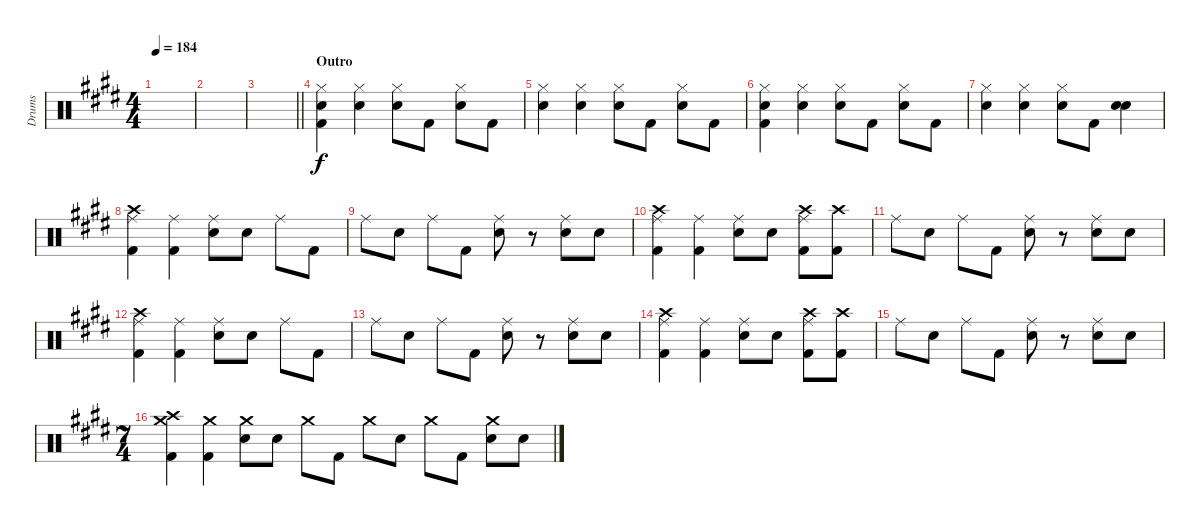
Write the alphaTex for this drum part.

\track ("Drums" "Drums") {instrument percussion}
\staff {score}
\articulation defaults
\ts (4 4)
\tempo 184
\clef neutral
\ks c#minor
|
|
\barLineRight lightlight
|
\section ("" "Outro")
("Hi-Hat (closed)" "Snare (hit) 2" "Kick (hit) 2").4 ("Hi-Hat (closed)" "Snare (hit) 2").4 ("Hi-Hat (closed)" "Snare (hit) 2").8 "Kick (hit) 2".8 ("Hi-Hat (closed)" "Snare (hit) 2").8 "Kick (hit) 2".8 |
("Hi-Hat (closed)" "Snare (hit) 2").4 ("Hi-Hat (closed)" "Snare (hit) 2").4 ("Hi-Hat (closed)" "Snare (hit) 2").8 "Kick (hit) 2".8 ("Hi-Hat (closed)" "Snare (hit) 2").8 "Kick (hit) 2".8 |
("Hi-Hat (closed)" "Snare (hit) 2" "Kick (hit) 2").4 ("Hi-Hat (closed)" "Snare (hit) 2").4 ("Hi-Hat (closed)" "Snare (hit) 2").8 "Kick (hit) 2".8 ("Hi-Hat (closed)" "Snare (hit) 2").8 "Kick (hit) 2".8 |
("Hi-Hat (closed)" "Snare (hit) 2").4 ("Hi-Hat (closed)" "Snare (hit) 2").4 ("Hi-Hat (closed)" "Snare (hit) 2").8 "Kick (hit) 2".8 ("Electric Snare (hit)" "Snare (hit) 2").4 |
("Ride (middle)" "Crash high (hit)" "Kick (hit) 2").4 ("Ride (middle)" "Kick (hit) 2").4 ("Ride (middle)" "Snare (hit) 2").8 "Snare (hit) 2".8 "Ride (middle)".8 "Kick (hit) 2".8 |
"Ride (middle)".8 "Snare (hit) 2".8 "Ride (middle)".8 "Kick (hit) 2".8 ("Ride (middle)" "Snare (hit) 2").8 r.8 ("Ride (middle)" "Snare (hit) 2").8 "Snare (hit) 2".8 |
("Ride (middle)" "Crash high (hit)" "Kick (hit) 2").4 ("Ride (middle)" "Kick (hit) 2").4 ("Ride (middle)" "Snare (hit) 2").8 "Snare (hit) 2".8 ("Ride (middle)" "Crash high (hit)" "Kick (hit) 2").8 ("Crash high (hit)" "Kick (hit) 2").8 |
"Ride (middle)".8 "Snare (hit) 2".8 "Ride (middle)".8 "Kick (hit) 2".8 ("Ride (middle)" "Snare (hit) 2").8 r.8 ("Ride (middle)" "Snare (hit) 2").8 "Snare (hit) 2".8 |
("Ride (middle)" "Crash high (hit)" "Kick (hit) 2").4 ("Ride (middle)" "Kick (hit) 2").4 ("Ride (middle)" "Snare (hit) 2").8 "Snare (hit) 2".8 "Ride (middle)".8 "Kick (hit) 2".8 |
"Ride (middle)".8 "Snare (hit) 2".8 "Ride (middle)".8 "Kick (hit) 2".8 ("Ride (middle)" "Snare (hit) 2").8 r.8 ("Ride (middle)" "Snare (hit) 2").8 "Snare (hit) 2".8 |
("Ride (middle)" "Crash high (hit)" "Kick (hit) 2").4 ("Ride (middle)" "Kick (hit) 2").4 ("Ride (middle)" "Snare (hit) 2").8 "Snare (hit) 2".8 ("Ride (middle)" "Crash high (hit)" "Kick (hit) 2").8 ("Crash high (hit)" "Kick (hit) 2").8 |
"Ride (middle)".8 "Snare (hit) 2".8 "Ride (middle)".8 "Kick (hit) 2".8 ("Ride (middle)" "Snare (hit) 2").8 r.8 ("Ride (middle)" "Snare (hit) 2").8 "Snare (hit) 2".8 |
\ts (7 4)
("Crash medium (hit)" "Crash high (hit)" "Kick (hit) 2").4 ("Crash medium (hit)" "Kick (hit) 2").4 ("Crash medium (hit)" "Snare (hit) 2").8 "Snare (hit) 2".8 "Crash medium (hit)".8 "Kick (hit) 2".8 "Crash medium (hit)".8 "Snare (hit) 2".8 "Crash medium (hit)".8 "Kick (hit) 2".8 ("Crash medium (hit)" "Snare (hit) 2").8 "Snare (hit) 2".8
